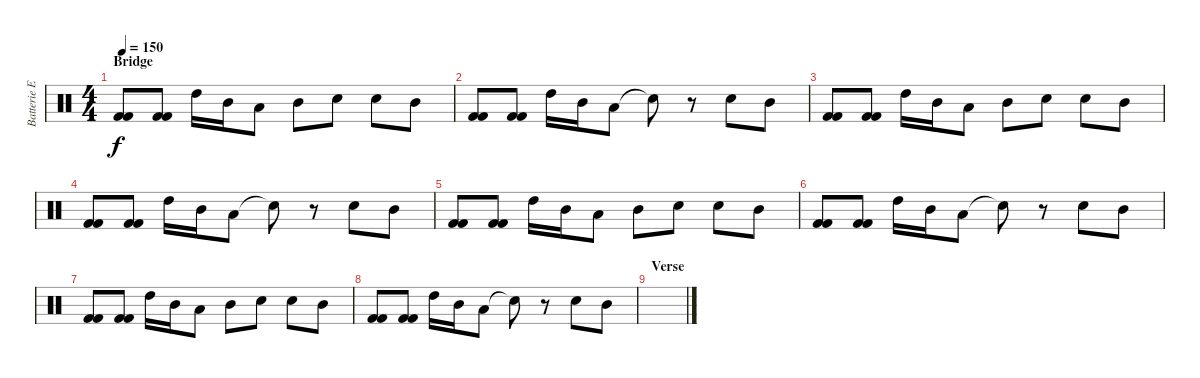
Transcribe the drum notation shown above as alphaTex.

\track ("Batterie Electronique" "Batterie E") {instrument percussion}
\staff {score}
\articulation defaults
\ts (4 4)
\section ("" "Bridge")
\tempo 150
\clef neutral
\ks c
("Kick (hit) 2" "Kick (hit) 2").8{dy f volume 10} ("Kick (hit) 2" "Kick (hit) 2").8 "High Tom (hit)".16 "Mid Tom (hit)".16 "Low Tom (hit)".8 "Mid Tom (hit)".8 "Snare (hit) 2".8 "Snare (hit) 2".8 "Mid Tom (hit)".8 |
("Kick (hit) 2" "Kick (hit) 2").8 ("Kick (hit) 2" "Kick (hit) 2").8 "High Tom (hit)".16 "Mid Tom (hit)".16 "Low Tom (hit)".8 "Snare (hit)"{t}.8 r.8 "Snare (hit) 2".8 "Mid Tom (hit)".8 |
("Kick (hit) 2" "Kick (hit) 2").8 ("Kick (hit) 2" "Kick (hit) 2").8 "High Tom (hit)".16 "Mid Tom (hit)".16 "Low Tom (hit)".8 "Mid Tom (hit)".8 "Snare (hit) 2".8 "Snare (hit) 2".8 "Mid Tom (hit)".8 |
("Kick (hit) 2" "Kick (hit) 2").8 ("Kick (hit) 2" "Kick (hit) 2").8 "High Tom (hit)".16 "Mid Tom (hit)".16 "Low Tom (hit)".8 "Snare (hit)"{t}.8 r.8 "Snare (hit) 2".8 "Mid Tom (hit)".8 |
("Kick (hit) 2" "Kick (hit) 2").8 ("Kick (hit) 2" "Kick (hit) 2").8 "High Tom (hit)".16 "Mid Tom (hit)".16 "Low Tom (hit)".8 "Mid Tom (hit)".8 "Snare (hit) 2".8 "Snare (hit) 2".8 "Mid Tom (hit)".8 |
("Kick (hit) 2" "Kick (hit) 2").8 ("Kick (hit) 2" "Kick (hit) 2").8 "High Tom (hit)".16 "Mid Tom (hit)".16 "Low Tom (hit)".8 "Snare (hit)"{t}.8 r.8 "Snare (hit) 2".8 "Mid Tom (hit)".8 |
("Kick (hit) 2" "Kick (hit) 2").8 ("Kick (hit) 2" "Kick (hit) 2").8 "High Tom (hit)".16 "Mid Tom (hit)".16 "Low Tom (hit)".8 "Mid Tom (hit)".8 "Snare (hit) 2".8 "Snare (hit) 2".8 "Mid Tom (hit)".8 |
("Kick (hit) 2" "Kick (hit) 2").8 ("Kick (hit) 2" "Kick (hit) 2").8 "High Tom (hit)".16 "Mid Tom (hit)".16 "Low Tom (hit)".8 "Snare (hit)"{t}.8 r.8 "Snare (hit) 2".8 "Mid Tom (hit)".8 |
\section ("" "Verse")
